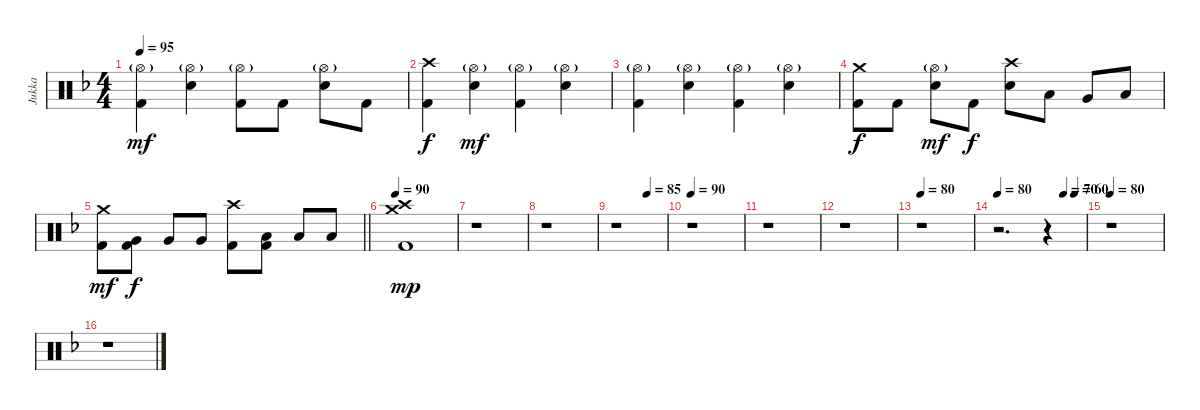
\track ("Jukka" "Jukka") {instrument percussion}
\staff {score}
\articulation defaults
\ts (4 4)
\tempo 95
\clef neutral
\ks f
("Hi-Hat (open)"{g} "Kick (hit) 2").4{dy mf} ("Hi-Hat (open)"{g} "Electric Snare (hit)").4 ("Hi-Hat (open)"{g} "Kick (hit) 2").8 "Kick (hit) 2".8 ("Hi-Hat (open)"{g} "Electric Snare (hit)").8 "Kick (hit) 2".8 |
("Crash high (hit)" "Kick (hit) 2").4{dy f} ("Hi-Hat (open)"{g} "Electric Snare (hit)").4{dy mf} ("Hi-Hat (open)"{g} "Kick (hit) 2").4 ("Hi-Hat (open)"{g} "Electric Snare (hit)").4 |
("Hi-Hat (open)"{g} "Kick (hit) 2").4 ("Hi-Hat (open)"{g} "Electric Snare (hit)").4 ("Hi-Hat (open)"{g} "Kick (hit) 2").4 ("Hi-Hat (open)"{g} "Electric Snare (hit)").4 |
("Crash medium (hit)" "Kick (hit) 2").8{dy f} "Kick (hit) 2".8 ("Hi-Hat (open)"{g} "Electric Snare (hit)").8{dy mf} "Kick (hit) 2".8{dy f} ("Crash high (hit)" "Electric Snare (hit)").8 "Low Tom (hit)".8 "Very Low Tom (hit)".8 "Low Floor Tom (hit)".8 |
\barLineRight lightlight
("Crash medium (hit)" "Kick (hit) 2").8{dy mf} ("Very Low Tom (hit)" "Kick (hit) 2").8{dy f} "Very Low Tom (hit)".8 "Very Low Tom (hit)".8 ("Crash high (hit)" "Kick (hit) 2").8 ("Low Floor Tom (hit)" "Kick (hit) 2").8 "Low Floor Tom (hit)".8 "Low Floor Tom (hit)".8 |
\tempo 90
("Crash medium (hit)" "Crash high (hit)" "Kick (hit) 2").1{dy mp} |
r.1 |
r.1 |
\tempo (85 0.625)
r.1 |
\tempo 90
r.1 |
r.1 |
r.1 |
\tempo 80
r.1 |
\tempo 80
\tempo (60 0.875)
\tempo (70 0.75)
r.2{d} r.4 |
\tempo 80
r.1 |
r.1
